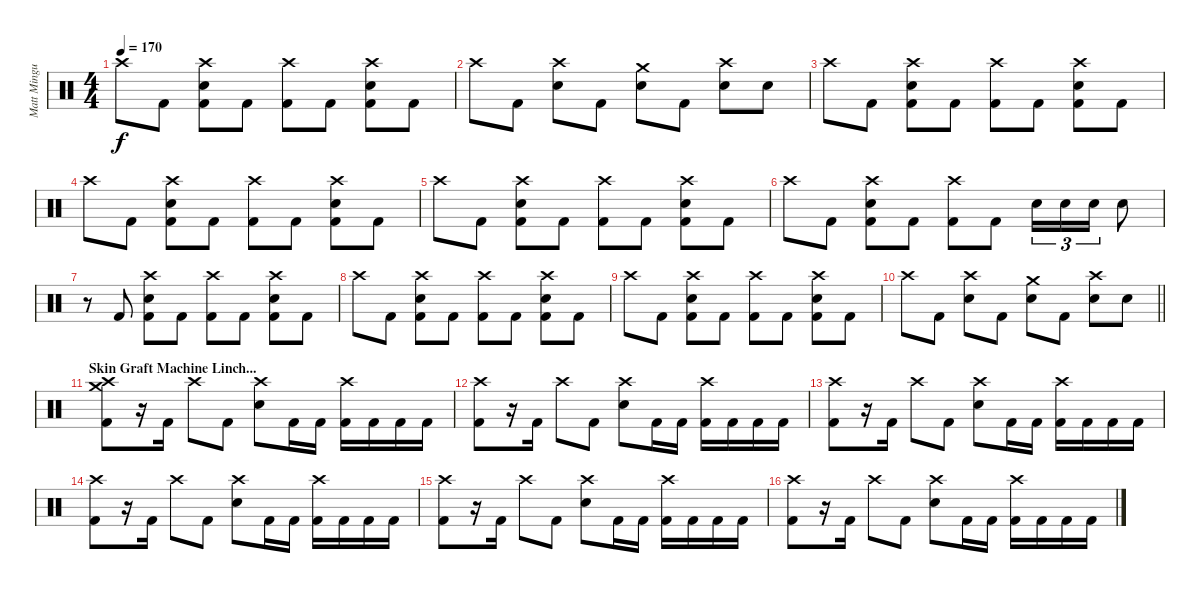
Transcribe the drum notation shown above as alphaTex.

\track ("Matt Mingus" "Matt Mingu") {instrument percussion}
\staff {score}
\articulation defaults
\ts (4 4)
\tempo 170
\clef neutral
\ks c "Crash high (hit)".8{dy f} "Kick (hit) 2".8
("Crash high (hit)" "Electric Snare (hit)" "Kick (hit) 2").8 "Kick (hit) 2".8 ("Crash high (hit)" "Kick (hit) 2").8 "Kick (hit) 2".8 ("Crash high (hit)" "Electric Snare (hit)" "Kick (hit) 2").8 "Kick (hit) 2".8 |
"Crash high (hit)".8 "Kick (hit) 2".8 ("Crash high (hit)" "Electric Snare (hit)").8 "Kick (hit) 2".8 ("Crash medium (hit)" "Electric Snare (hit)").8 "Kick (hit) 2".8 ("Crash high (hit)" "Electric Snare (hit)").8 "Electric Snare (hit)".8 |
"Crash high (hit)".8 "Kick (hit) 2".8 ("Crash high (hit)" "Electric Snare (hit)" "Kick (hit) 2").8 "Kick (hit) 2".8 ("Crash high (hit)" "Kick (hit) 2").8 "Kick (hit) 2".8 ("Crash high (hit)" "Electric Snare (hit)" "Kick (hit) 2").8 "Kick (hit) 2".8 |
"Crash high (hit)".8 "Kick (hit) 2".8 ("Crash high (hit)" "Electric Snare (hit)" "Kick (hit) 2").8 "Kick (hit) 2".8 ("Crash high (hit)" "Kick (hit) 2").8 "Kick (hit) 2".8 ("Crash high (hit)" "Electric Snare (hit)" "Kick (hit) 2").8 "Kick (hit) 2".8 |
"Crash high (hit)".8 "Kick (hit) 2".8 ("Crash high (hit)" "Electric Snare (hit)" "Kick (hit) 2").8 "Kick (hit) 2".8 ("Crash high (hit)" "Kick (hit) 2").8 "Kick (hit) 2".8 ("Crash high (hit)" "Electric Snare (hit)" "Kick (hit) 2").8 "Kick (hit) 2".8 |
"Crash high (hit)".8 "Kick (hit) 2".8 ("Crash high (hit)" "Electric Snare (hit)" "Kick (hit) 2").8 "Kick (hit) 2".8 ("Crash high (hit)" "Kick (hit) 2").8 "Kick (hit) 2".8 "Electric Snare (hit)".16{tu (3 2)} "Electric Snare (hit)".16{tu (3 2)} "Electric Snare (hit)".16{tu (3 2)} "Electric Snare (hit)".8 |
r.8 "Kick (hit) 2".8 ("Crash high (hit)" "Electric Snare (hit)" "Kick (hit) 2").8 "Kick (hit) 2".8 ("Crash high (hit)" "Kick (hit) 2").8 "Kick (hit) 2".8 ("Crash high (hit)" "Electric Snare (hit)" "Kick (hit) 2").8 "Kick (hit) 2".8 |
"Crash high (hit)".8 "Kick (hit) 2".8 ("Crash high (hit)" "Electric Snare (hit)" "Kick (hit) 2").8 "Kick (hit) 2".8 ("Crash high (hit)" "Kick (hit) 2").8 "Kick (hit) 2".8 ("Crash high (hit)" "Electric Snare (hit)" "Kick (hit) 2").8 "Kick (hit) 2".8 |
"Crash high (hit)".8 "Kick (hit) 2".8 ("Crash high (hit)" "Electric Snare (hit)" "Kick (hit) 2").8 "Kick (hit) 2".8 ("Crash high (hit)" "Kick (hit) 2").8 "Kick (hit) 2".8 ("Crash high (hit)" "Electric Snare (hit)" "Kick (hit) 2").8 "Kick (hit) 2".8 |
\barLineRight lightlight "Crash high (hit)".8 "Kick (hit) 2".8
("Crash high (hit)" "Electric Snare (hit)").8 "Kick (hit) 2".8 ("Crash medium (hit)" "Electric Snare (hit)").8 "Kick (hit) 2".8 ("Crash high (hit)" "Electric Snare (hit)").8 "Electric Snare (hit)".8 |
\section ("" "Skin Graft Machine Linch...")
("Crash medium (hit)" "Crash high (hit)" "Kick (hit) 2").8 r.16 "Kick (hit) 2".16 "Crash high (hit)".8 "Kick (hit) 2".8 ("Crash high (hit)" "Electric Snare (hit)").8 "Kick (hit) 2".16 "Kick (hit) 2".16 ("Crash high (hit)" "Kick (hit) 2").16 "Kick (hit) 2".16 "Kick (hit) 2".16 "Kick (hit) 2".16 |
("Crash high (hit)" "Kick (hit) 2").8 r.16 "Kick (hit) 2".16 "Crash high (hit)".8 "Kick (hit) 2".8 ("Crash high (hit)" "Electric Snare (hit)").8 "Kick (hit) 2".16 "Kick (hit) 2".16 ("Crash high (hit)" "Kick (hit) 2").16 "Kick (hit) 2".16 "Kick (hit) 2".16 "Kick (hit) 2".16 |
("Crash high (hit)" "Kick (hit) 2").8 r.16 "Kick (hit) 2".16 "Crash high (hit)".8 "Kick (hit) 2".8 ("Crash high (hit)" "Electric Snare (hit)").8 "Kick (hit) 2".16 "Kick (hit) 2".16 ("Crash high (hit)" "Kick (hit) 2").16 "Kick (hit) 2".16 "Kick (hit) 2".16 "Kick (hit) 2".16 |
("Crash high (hit)" "Kick (hit) 2").8 r.16 "Kick (hit) 2".16 "Crash high (hit)".8 "Kick (hit) 2".8 ("Crash high (hit)" "Electric Snare (hit)").8 "Kick (hit) 2".16 "Kick (hit) 2".16 ("Crash high (hit)" "Kick (hit) 2").16 "Kick (hit) 2".16 "Kick (hit) 2".16 "Kick (hit) 2".16 |
("Crash high (hit)" "Kick (hit) 2").8 r.16 "Kick (hit) 2".16 "Crash high (hit)".8 "Kick (hit) 2".8 ("Crash high (hit)" "Electric Snare (hit)").8 "Kick (hit) 2".16 "Kick (hit) 2".16 ("Crash high (hit)" "Kick (hit) 2").16 "Kick (hit) 2".16 "Kick (hit) 2".16 "Kick (hit) 2".16 |
("Crash high (hit)" "Kick (hit) 2").8 r.16 "Kick (hit) 2".16 "Crash high (hit)".8 "Kick (hit) 2".8 ("Crash high (hit)" "Electric Snare (hit)").8 "Kick (hit) 2".16 "Kick (hit) 2".16 ("Crash high (hit)" "Kick (hit) 2").16 "Kick (hit) 2".16 "Kick (hit) 2".16 "Kick (hit) 2".16
